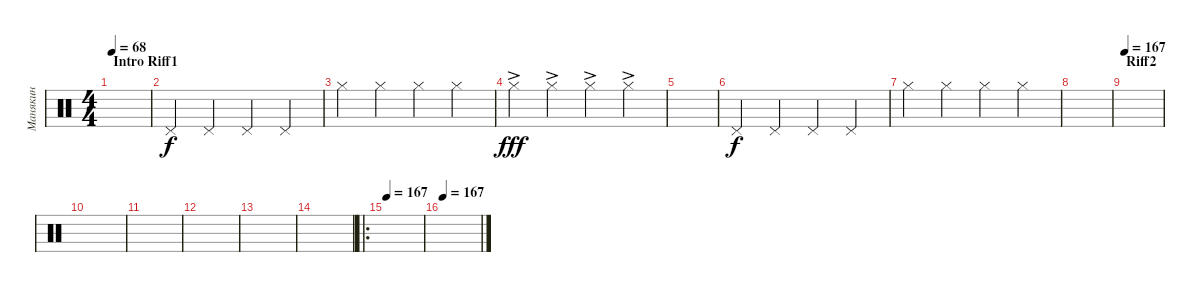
\track ("Манякин" "Манякин") {instrument percussion}
\staff {score}
\articulation defaults
\ts (4 4)
\section ("" "Intro Riff1")
\tempo 68
\clef neutral
\ks c
|
"Pedal Hi-Hat (hit)".4 "Pedal Hi-Hat (hit)".4 "Pedal Hi-Hat (hit)".4 "Pedal Hi-Hat (hit)".4 |
"Hi-Hat (closed)".4 "Hi-Hat (closed)".4 "Hi-Hat (closed)".4 "Hi-Hat (closed)".4 |
"Hi-Hat (closed)"{ac}.4{dy fff} "Hi-Hat (closed)"{ac}.4 "Hi-Hat (closed)"{ac}.4 "Hi-Hat (closed)"{ac}.4 |
|
"Pedal Hi-Hat (hit)".4{dy f} "Pedal Hi-Hat (hit)".4 "Pedal Hi-Hat (hit)".4 "Pedal Hi-Hat (hit)".4 |
"Hi-Hat (closed)".4 "Hi-Hat (closed)".4 "Hi-Hat (closed)".4 "Hi-Hat (closed)".4 |
|
\section ("" "Riff2")
\tempo 167
|
|
|
|
|
|
\ro
\tempo 167
|
\tempo 167
